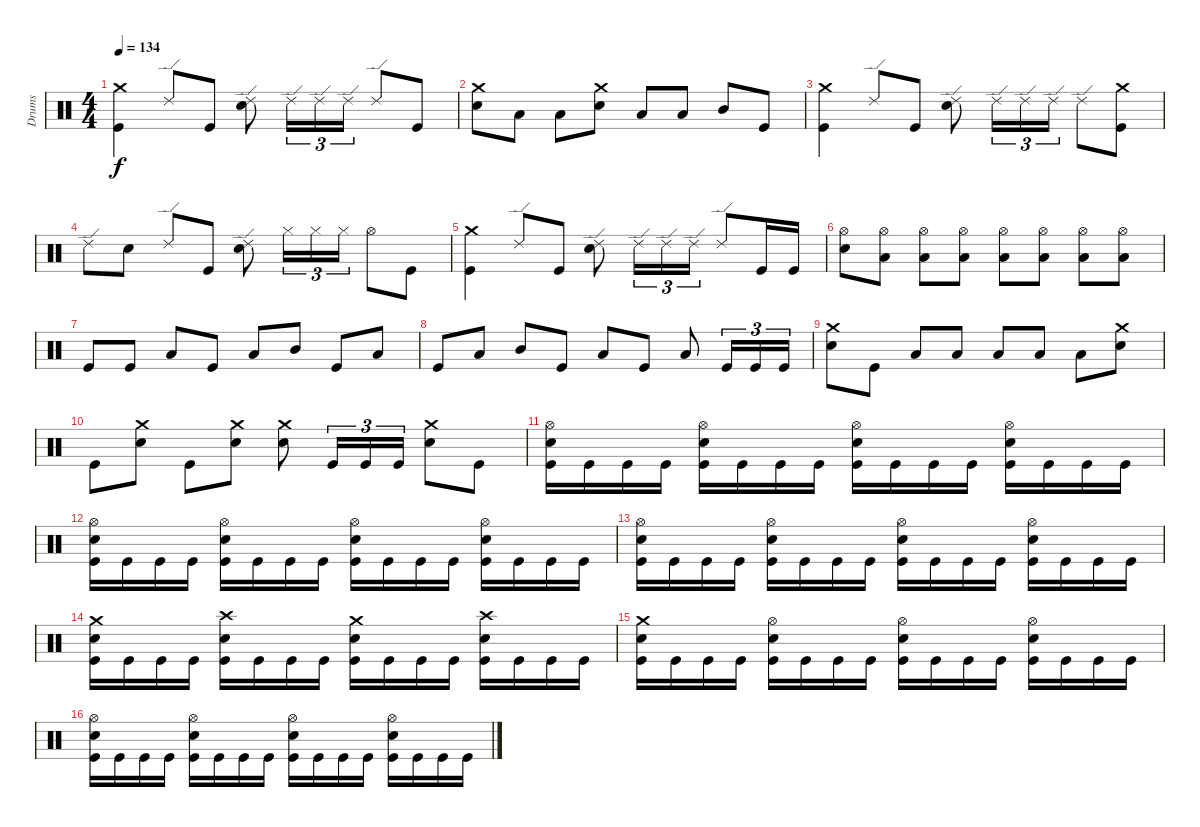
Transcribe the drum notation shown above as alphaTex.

\track ("Drums" "Drums") {instrument percussion}
\staff {score}
\articulation defaults
\ts (4 4)
\tempo 134
\clef neutral
\ks c
("Crash medium (hit)" "Kick (hit)").4{dy f} "Ride (edge) 2".8 "Kick (hit)".8 ("Ride (edge) 2" "Electric Snare (hit)").8 "Ride (edge) 2".16{tu (3 2)} "Ride (edge) 2".16{tu (3 2)} "Ride (edge) 2".16{tu (3 2)} "Ride (edge) 2".8 "Kick (hit)".8 |
("Crash medium (hit)" "Electric Snare (hit)").8 "Low Floor Tom (hit)".8 "Low Tom (hit)".8 ("Crash medium (hit)" "Electric Snare (hit)").8 "Low Floor Tom (hit)".8 "Low Tom (hit)".8 "Mid Tom (hit)".8 "Kick (hit)".8 |
("Crash medium (hit)" "Kick (hit)").4 "Ride (edge) 2".8 "Kick (hit)".8 ("Ride (edge) 2" "Electric Snare (hit)").8 "Ride (edge) 2".16{tu (3 2)} "Ride (edge) 2".16{tu (3 2)} "Ride (edge) 2".16{tu (3 2)} "Ride (edge) 2".8 ("Crash medium (hit)" "Kick (hit)").8 |
"Ride (edge) 2".8 "Electric Snare (hit)".8 "Ride (edge) 2".8 "Kick (hit)".8 ("Ride (edge) 2" "Electric Snare (hit)").8 "Hi-Hat (closed)".16{tu (3 2)} "Hi-Hat (closed)".16{tu (3 2)} "Hi-Hat (closed)".16{tu (3 2)} "Hi-Hat (open)".8 "Kick (hit)".8 |
("Crash medium (hit)" "Kick (hit)").4 "Ride (edge) 2".8 "Kick (hit)".8 ("Ride (edge) 2" "Electric Snare (hit)").8 "Ride (edge) 2".16{tu (3 2)} "Ride (edge) 2".16{tu (3 2)} "Ride (edge) 2".16{tu (3 2)} "Ride (edge) 2".8 "Kick (hit)".16 "Kick (hit)".16 |
("Hi-Hat (open)" "Electric Snare (hit)").8 ("Hi-Hat (open)" "Low Floor Tom (hit)").8 ("Hi-Hat (open)" "Low Floor Tom (hit)").8 ("Hi-Hat (open)" "Low Floor Tom (hit)").8 ("Hi-Hat (open)" "Low Floor Tom (hit)").8 ("Hi-Hat (open)" "Low Floor Tom (hit)").8 ("Hi-Hat (open)" "Low Floor Tom (hit)").8 ("Low Floor Tom (hit)" "Hi-Hat (open)").8 |
"Kick (hit)".8 "Kick (hit)".8 "Low Tom (hit)".8 "Kick (hit)".8 "Low Tom (hit)".8 "Mid Tom (hit)".8 "Kick (hit)".8 "Low Tom (hit)".8 |
"Kick (hit)".8 "Low Tom (hit)".8 "Mid Tom (hit)".8 "Kick (hit)".8 "Low Tom (hit)".8 "Kick (hit)".8 "Low Tom (hit)".8 "Kick (hit)".16{tu (3 2)} "Kick (hit)".16{tu (3 2)} "Kick (hit)".16{tu (3 2)} |
("Crash medium (hit)" "Electric Snare (hit)").8 "Kick (hit)".8 "Low Tom (hit)".8 "Low Tom (hit)".8 "Low Tom (hit)".8 "Low Tom (hit)".8 "Low Tom (hit)".8 ("Crash medium (hit)" "Electric Snare (hit)").8 |
"Kick (hit)".8 ("Crash medium (hit)" "Electric Snare (hit)").8 "Kick (hit)".8 ("Crash medium (hit)" "Electric Snare (hit)").8 ("Crash medium (hit)" "Electric Snare (hit)").8 "Kick (hit)".16{tu (3 2)} "Kick (hit)".16{tu (3 2)} "Kick (hit)".16{tu (3 2)} ("Crash medium (hit)" "Electric Snare (hit)").8 "Kick (hit)".8 |
("Hi-Hat (open)" "Electric Snare (hit)" "Kick (hit)").16 "Kick (hit)".16 "Kick (hit)".16 "Kick (hit)".16 ("Hi-Hat (open)" "Electric Snare (hit)" "Kick (hit)").16 "Kick (hit)".16 "Kick (hit)".16 "Kick (hit)".16 ("Hi-Hat (open)" "Electric Snare (hit)" "Kick (hit)").16 "Kick (hit)".16 "Kick (hit)".16 "Kick (hit)".16 ("Hi-Hat (open)" "Electric Snare (hit)" "Kick (hit)").16 "Kick (hit)".16 "Kick (hit)".16 "Kick (hit)".16 |
("Hi-Hat (open)" "Electric Snare (hit)" "Kick (hit)").16 "Kick (hit)".16 "Kick (hit)".16 "Kick (hit)".16 ("Hi-Hat (open)" "Electric Snare (hit)" "Kick (hit)").16 "Kick (hit)".16 "Kick (hit)".16 "Kick (hit)".16 ("Hi-Hat (open)" "Electric Snare (hit)" "Kick (hit)").16 "Kick (hit)".16 "Kick (hit)".16 "Kick (hit)".16 ("Hi-Hat (open)" "Electric Snare (hit)" "Kick (hit)").16 "Kick (hit)".16 "Kick (hit)".16 "Kick (hit)".16 |
("Hi-Hat (open)" "Electric Snare (hit)" "Kick (hit)").16 "Kick (hit)".16 "Kick (hit)".16 "Kick (hit)".16 ("Hi-Hat (open)" "Electric Snare (hit)" "Kick (hit)").16 "Kick (hit)".16 "Kick (hit)".16 "Kick (hit)".16 ("Hi-Hat (open)" "Electric Snare (hit)" "Kick (hit)").16 "Kick (hit)".16 "Kick (hit)".16 "Kick (hit)".16 ("Hi-Hat (open)" "Electric Snare (hit)" "Kick (hit)").16 "Kick (hit)".16 "Kick (hit)".16 "Kick (hit)".16 |
("Crash medium (hit)" "Electric Snare (hit)" "Kick (hit)").16 "Kick (hit)".16 "Kick (hit)".16 "Kick (hit)".16 ("Crash high (hit)" "Electric Snare (hit)" "Kick (hit)").16 "Kick (hit)".16 "Kick (hit)".16 "Kick (hit)".16 ("Crash medium (hit)" "Electric Snare (hit)" "Kick (hit)").16 "Kick (hit)".16 "Kick (hit)".16 "Kick (hit)".16 ("Crash high (hit)" "Electric Snare (hit)" "Kick (hit)").16 "Kick (hit)".16 "Kick (hit)".16 "Kick (hit)".16 |
("Crash medium (hit)" "Electric Snare (hit)" "Kick (hit)").16 "Kick (hit)".16 "Kick (hit)".16 "Kick (hit)".16 ("Hi-Hat (open)" "Electric Snare (hit)" "Kick (hit)").16 "Kick (hit)".16 "Kick (hit)".16 "Kick (hit)".16 ("Hi-Hat (open)" "Electric Snare (hit)" "Kick (hit)").16 "Kick (hit)".16 "Kick (hit)".16 "Kick (hit)".16 ("Hi-Hat (open)" "Electric Snare (hit)" "Kick (hit)").16 "Kick (hit)".16 "Kick (hit)".16 "Kick (hit)".16 |
("Hi-Hat (open)" "Electric Snare (hit)" "Kick (hit)").16 "Kick (hit)".16 "Kick (hit)".16 "Kick (hit)".16 ("Hi-Hat (open)" "Electric Snare (hit)" "Kick (hit)").16 "Kick (hit)".16 "Kick (hit)".16 "Kick (hit)".16 ("Hi-Hat (open)" "Electric Snare (hit)" "Kick (hit)").16 "Kick (hit)".16 "Kick (hit)".16 "Kick (hit)".16 ("Hi-Hat (open)" "Electric Snare (hit)" "Kick (hit)").16 "Kick (hit)".16 "Kick (hit)".16 "Kick (hit)".16
